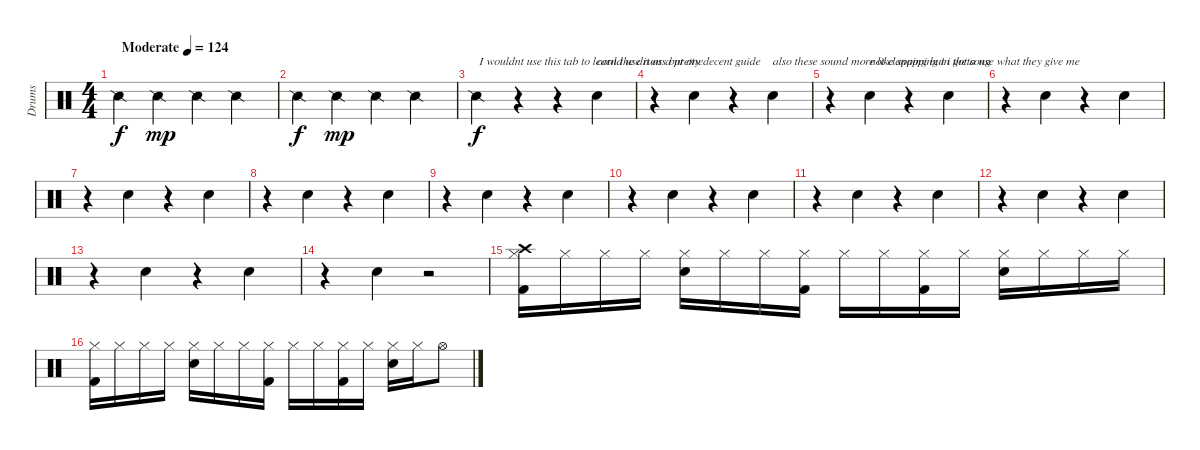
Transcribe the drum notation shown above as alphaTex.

\track ("Drums" "Drums") {instrument percussion}
\staff {score}
\articulation defaults
\ts (4 4)
\tempo (124 "Moderate")
\clef neutral
\ks c "Snare (side stick) 2".4{dy f} "Snare (side stick) 2".4{dy mp} "Snare (side stick) 2".4 "Snare (side stick) 2".4
|
"Snare (side stick) 2".4{dy f} "Snare (side stick) 2".4{dy mp} "Snare (side stick) 2".4 "Snare (side stick) 2".4 |
"Snare (side stick) 2".4{txt "I wouldnt use this tab to learn the drums but one" dy f} r.4 r.4 "Hand Clap (hit)".4{txt "could use it as a pretty decent guide"} |
r.4 "Hand Clap (hit)".4 r.4 "Hand Clap (hit)".4{txt "also these sound more like snapping in the song"} |
r.4 "Hand Clap (hit)".4{txt "not clapping but i gotta use what they give me"} r.4 "Hand Clap (hit)".4 |
r.4 "Hand Clap (hit)".4 r.4 "Hand Clap (hit)".4 |
r.4 "Hand Clap (hit)".4 r.4 "Hand Clap (hit)".4 |
r.4 "Hand Clap (hit)".4 r.4 "Hand Clap (hit)".4 |
r.4 "Hand Clap (hit)".4 r.4 "Hand Clap (hit)".4 |
r.4 "Hand Clap (hit)".4 r.4 "Hand Clap (hit)".4 |
r.4 "Hand Clap (hit)".4 r.4 "Hand Clap (hit)".4 |
r.4 "Hand Clap (hit)".4 r.4 "Hand Clap (hit)".4 |
r.4 "Hand Clap (hit)".4 r.4 "Hand Clap (hit)".4 |
r.4 "Hand Clap (hit)".4 r.2 |
("Crash high (hit)" "Hi-Hat (closed)" "Kick (hit) 2").16 "Hi-Hat (closed)".16 "Hi-Hat (closed)".16 "Hi-Hat (closed)".16 ("Hi-Hat (closed)" "Electric Snare (hit)").16 "Hi-Hat (closed)".16 "Hi-Hat (closed)".16 ("Hi-Hat (closed)" "Kick (hit) 2").16 "Hi-Hat (closed)".16 "Hi-Hat (closed)".16 ("Hi-Hat (closed)" "Kick (hit) 2").16 "Hi-Hat (closed)".16 ("Hi-Hat (closed)" "Electric Snare (hit)").16 "Hi-Hat (closed)".16 "Hi-Hat (closed)".16 "Hi-Hat (closed)".16 |
("Hi-Hat (closed)" "Kick (hit) 2").16 "Hi-Hat (closed)".16 "Hi-Hat (closed)".16 "Hi-Hat (closed)".16 ("Hi-Hat (closed)" "Electric Snare (hit)").16 "Hi-Hat (closed)".16 "Hi-Hat (closed)".16 ("Hi-Hat (closed)" "Kick (hit) 2").16 "Hi-Hat (closed)".16 "Hi-Hat (closed)".16 ("Hi-Hat (closed)" "Kick (hit) 2").16 "Hi-Hat (closed)".16 ("Hi-Hat (closed)" "Electric Snare (hit)").16 "Hi-Hat (closed)".16 "Hi-Hat (open)".8
